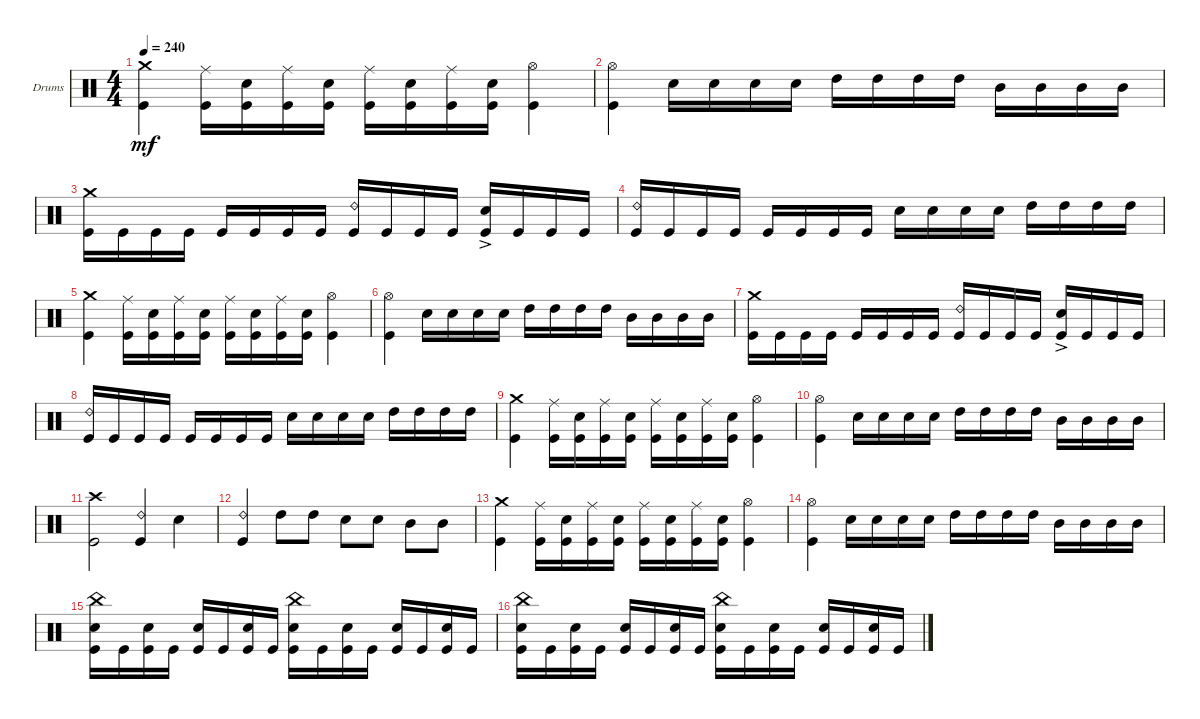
\defaultSystemsLayout 4
\bracketExtendMode groupsimilarinstruments
\firstSystemTrackNameOrientation horizontal
\otherSystemsTrackNameOrientation horizontal
\track ("Drumkit" "Drums") {instrument percussion}
\staff {score}
\articulation defaults
\ts (4 4)
\tempo 240
\clef neutral
\scale
0.474178
\ks c
("Crash medium (hit)" "Kick (hit)").4{dy mf} ("Ride (middle)" "Kick (hit)").16 ("Snare (hit) 2" "Kick (hit)").16 ("Ride (middle)" "Kick (hit)").16 ("Snare (hit) 2" "Kick (hit)").16 ("Ride (middle)" "Kick (hit)").16 ("Snare (hit) 2" "Kick (hit)").16 ("Ride (middle)" "Kick (hit)").16 ("Snare (hit) 2" "Kick (hit)").16 ("Hi-Hat (open)" "Kick (hit)").4 |
\scale
0.262911 ("Hi-Hat (open)" "Kick (hit)").4 "Snare (hit) 2".16 "Snare (hit) 2".16 "Snare (hit) 2".16 "Snare (hit) 2".16 "High Tom (hit)".16 "High Tom (hit)".16 "High Tom (hit)".16 "High Tom (hit)".16 "Mid Tom (hit)".16 "Mid Tom (hit)".16 "Mid Tom (hit)".16 "Mid Tom (hit)".16 |
\scale
0.262911 ("Kick (hit)" "Crash medium (hit)").16 "Kick (hit)".16 "Kick (hit)".16 "Kick (hit)".16 "Kick (hit)".16 "Kick (hit)".16 "Kick (hit)".16 "Kick (hit)".16 ("Kick (hit)" "Ride (bell) 2").16 "Kick (hit)".16 "Kick (hit)".16 "Kick (hit)".16 ("Kick (hit)" "Snare (hit) 2"{ac}).16 "Kick (hit)".16 "Kick (hit)".16 "Kick (hit)".16 |
\scale
0.333333 ("Kick (hit)" "Ride (bell) 2").16 "Kick (hit)".16 "Kick (hit)".16 "Kick (hit)".16 "Kick (hit)".16 "Kick (hit)".16 "Kick (hit)".16 "Kick (hit)".16 "Snare (hit) 2".16 "Snare (hit) 2".16 "Snare (hit) 2".16 "Snare (hit) 2".16 "High Tom (hit)".16 "High Tom (hit)".16 "High Tom (hit)".16 "High Tom (hit)".16 |
\scale
0.333333 ("Crash medium (hit)" "Kick (hit)").4 ("Ride (middle)" "Kick (hit)").16 ("Snare (hit) 2" "Kick (hit)").16 ("Ride (middle)" "Kick (hit)").16 ("Snare (hit) 2" "Kick (hit)").16 ("Ride (middle)" "Kick (hit)").16 ("Snare (hit) 2" "Kick (hit)").16 ("Ride (middle)" "Kick (hit)").16 ("Snare (hit) 2" "Kick (hit)").16 ("Hi-Hat (open)" "Kick (hit)").4 |
\scale
0.333333 ("Hi-Hat (open)" "Kick (hit)").4 "Snare (hit) 2".16 "Snare (hit) 2".16 "Snare (hit) 2".16 "Snare (hit) 2".16 "High Tom (hit)".16 "High Tom (hit)".16 "High Tom (hit)".16 "High Tom (hit)".16 "Mid Tom (hit)".16 "Mid Tom (hit)".16 "Mid Tom (hit)".16 "Mid Tom (hit)".16 |
\scale
0.333333 ("Kick (hit)" "Crash medium (hit)").16 "Kick (hit)".16 "Kick (hit)".16 "Kick (hit)".16 "Kick (hit)".16 "Kick (hit)".16 "Kick (hit)".16 "Kick (hit)".16 ("Kick (hit)" "Ride (bell) 2").16 "Kick (hit)".16 "Kick (hit)".16 "Kick (hit)".16 ("Kick (hit)" "Snare (hit) 2"{ac}).16 "Kick (hit)".16 "Kick (hit)".16 "Kick (hit)".16 |
\scale
0.333333 ("Kick (hit)" "Ride (bell) 2").16 "Kick (hit)".16 "Kick (hit)".16 "Kick (hit)".16 "Kick (hit)".16 "Kick (hit)".16 "Kick (hit)".16 "Kick (hit)".16 "Snare (hit) 2".16 "Snare (hit) 2".16 "Snare (hit) 2".16 "Snare (hit) 2".16 "High Tom (hit)".16 "High Tom (hit)".16 "High Tom (hit)".16 "High Tom (hit)".16 |
\scale
0.333333 ("Crash medium (hit)" "Kick (hit)").4 ("Ride (middle)" "Kick (hit)").16 ("Snare (hit) 2" "Kick (hit)").16 ("Ride (middle)" "Kick (hit)").16 ("Snare (hit) 2" "Kick (hit)").16 ("Ride (middle)" "Kick (hit)").16 ("Snare (hit) 2" "Kick (hit)").16 ("Ride (middle)" "Kick (hit)").16 ("Snare (hit) 2" "Kick (hit)").16 ("Hi-Hat (open)" "Kick (hit)").4 |
\scale
0.333333 ("Hi-Hat (open)" "Kick (hit)").4 "Snare (hit) 2".16 "Snare (hit) 2".16 "Snare (hit) 2".16 "Snare (hit) 2".16 "High Tom (hit)".16 "High Tom (hit)".16 "High Tom (hit)".16 "High Tom (hit)".16 "Mid Tom (hit)".16 "Mid Tom (hit)".16 "Mid Tom (hit)".16 "Mid Tom (hit)".16 |
\scale
0.333333 ("Crash high (hit)" "Kick (hit)").2 ("Kick (hit)" "Ride (bell) 2").4 "Snare (hit) 2".4 |
\scale
0.333333 ("Ride (bell) 2" "Kick (hit)").4 "High Tom (hit)".8 "High Tom (hit)".8 "Snare (hit) 2".8 "Snare (hit) 2".8 "Mid Tom (hit)".8 "Mid Tom (hit)".8 |
\scale
0.333333 ("Crash medium (hit)" "Kick (hit)").4 ("Ride (middle)" "Kick (hit)").16 ("Snare (hit) 2" "Kick (hit)").16 ("Ride (middle)" "Kick (hit)").16 ("Snare (hit) 2" "Kick (hit)").16 ("Ride (middle)" "Kick (hit)").16 ("Snare (hit) 2" "Kick (hit)").16 ("Ride (middle)" "Kick (hit)").16 ("Snare (hit) 2" "Kick (hit)").16 ("Hi-Hat (open)" "Kick (hit)").4 |
\scale
0.333333 ("Hi-Hat (open)" "Kick (hit)").4 "Snare (hit) 2".16 "Snare (hit) 2".16 "Snare (hit) 2".16 "Snare (hit) 2".16 "High Tom (hit)".16 "High Tom (hit)".16 "High Tom (hit)".16 "High Tom (hit)".16 "Mid Tom (hit)".16 "Mid Tom (hit)".16 "Mid Tom (hit)".16 "Mid Tom (hit)".16 |
\scale
0.333333 ("Kick (hit)" "Snare (hit) 2" "China (hit)").16 "Kick (hit)".16 ("Kick (hit)" "Snare (hit) 2").16 "Kick (hit)".16 ("Kick (hit)" "Snare (hit) 2").16 "Kick (hit)".16 ("Kick (hit)" "Snare (hit) 2").16 "Kick (hit)".16 ("Kick (hit)" "Snare (hit) 2" "China (hit)").16 "Kick (hit)".16 ("Kick (hit)" "Snare (hit) 2").16 "Kick (hit)".16 ("Kick (hit)" "Snare (hit) 2").16 "Kick (hit)".16 ("Kick (hit)" "Snare (hit) 2").16 "Kick (hit)".16 |
("Kick (hit)" "Snare (hit) 2" "China (hit)").16 "Kick (hit)".16 ("Kick (hit)" "Snare (hit) 2").16 "Kick (hit)".16 ("Kick (hit)" "Snare (hit) 2").16 "Kick (hit)".16 ("Kick (hit)" "Snare (hit) 2").16 "Kick (hit)".16 ("Kick (hit)" "Snare (hit) 2" "China (hit)").16 "Kick (hit)".16 ("Kick (hit)" "Snare (hit) 2").16 "Kick (hit)".16 ("Kick (hit)" "Snare (hit) 2").16 "Kick (hit)".16 ("Kick (hit)" "Snare (hit) 2").16 "Kick (hit)".16
